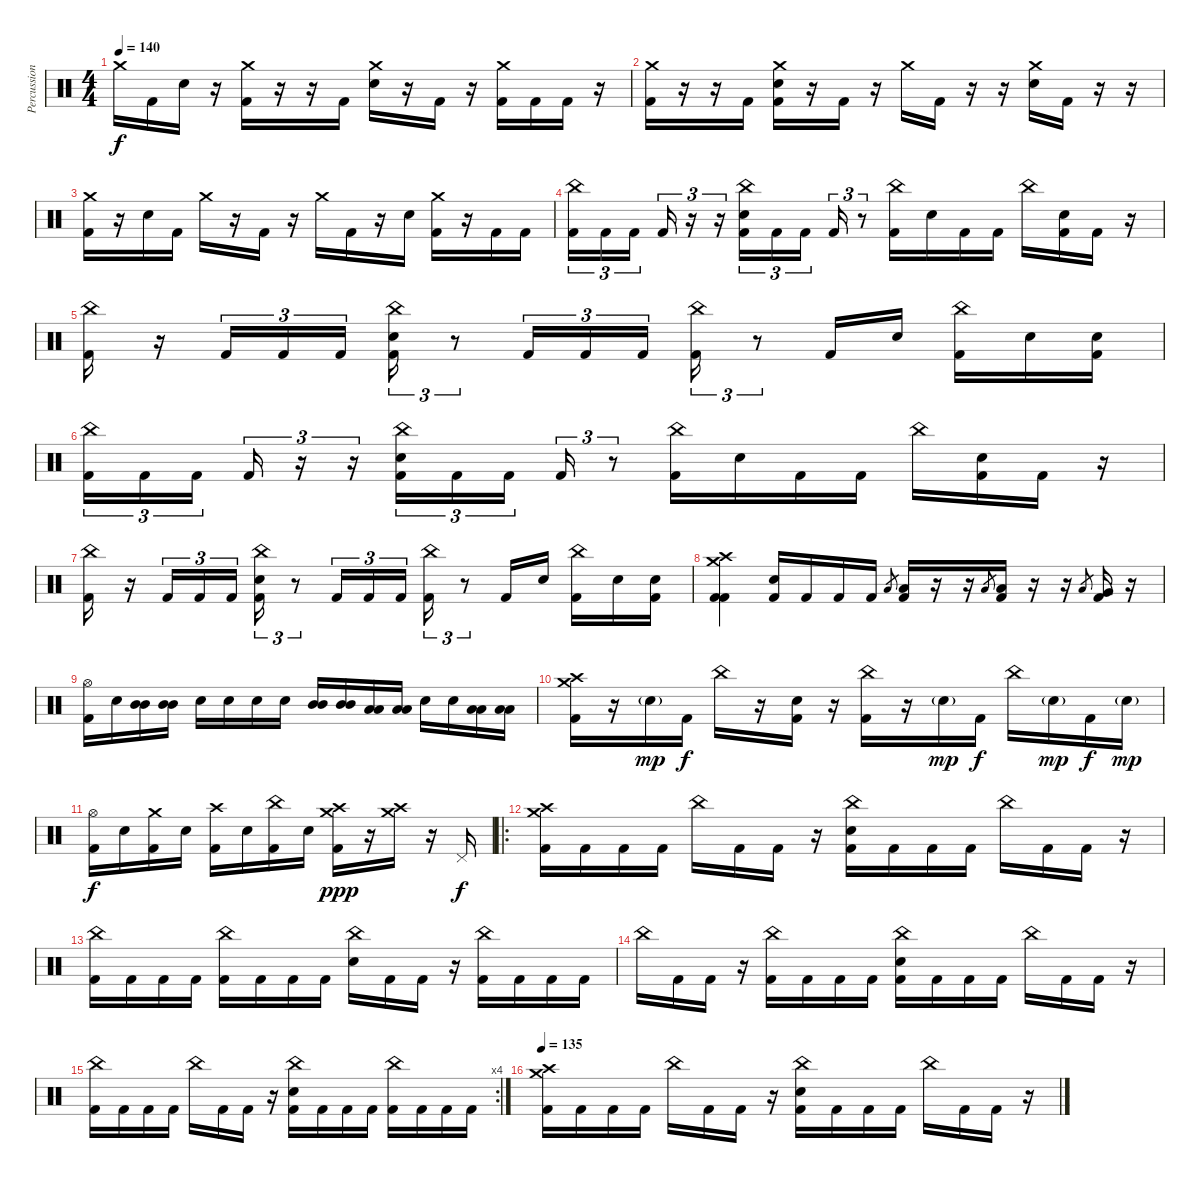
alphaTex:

\track ("Percussion" "Percussion") {instrument percussion}
\staff {score}
\articulation defaults
\ts (4 4)
\tempo 140
\clef neutral
\ks c "Crash medium (hit)".16{dy f} "Kick (hit) 2".16 "Electric Snare (hit)".16
r.16 ("Crash medium (hit)" "Kick (hit) 2").16 r.16 r.16 "Kick (hit) 2".16 ("Crash medium (hit)" "Electric Snare (hit)").16 r.16 "Kick (hit) 2".16 r.16 ("Crash medium (hit)" "Kick (hit) 2").16 "Kick (hit) 2".16 "Kick (hit) 2".16 r.16 |
("Crash medium (hit)" "Kick (hit) 2").16 r.16 r.16 "Kick (hit) 2".16 ("Crash medium (hit)" "Electric Snare (hit)" "Kick (hit) 2").16 r.16 "Kick (hit) 2".16 r.16 "Crash medium (hit)".16 "Kick (hit) 2".16 r.16 r.16 ("Crash medium (hit)" "Electric Snare (hit)").16 "Kick (hit) 2".16 r.16 r.16 |
("Crash medium (hit)" "Kick (hit) 2").16 r.16 "Electric Snare (hit)".16 "Kick (hit) 2".16 "Crash medium (hit)".16 r.16 "Kick (hit) 2".16 r.16 "Crash medium (hit)".16 "Kick (hit) 2".16 r.16 "Electric Snare (hit)".16 ("Crash medium (hit)" "Kick (hit) 2").16 r.16 "Kick (hit) 2".16 "Kick (hit) 2".16 |
("China (hit)" "Kick (hit) 2").16{tu (3 2)} "Kick (hit) 2".16{tu (3 2)} "Kick (hit) 2".16{tu (3 2)} "Kick (hit) 2".16{tu (3 2)} r.16{tu (3 2)} r.16{tu (3 2)} ("China (hit)" "Electric Snare (hit)" "Kick (hit) 2").16{tu (3 2)} "Kick (hit) 2".16{tu (3 2)} "Kick (hit) 2".16{tu (3 2)} "Kick (hit) 2".16{tu (3 2)} r.8{tu (3 2)} ("China (hit)" "Kick (hit) 2").16 "Electric Snare (hit)".16 "Kick (hit) 2".16 "Kick (hit) 2".16 "China (hit)".16 ("Electric Snare (hit)" "Kick (hit) 2").16 "Kick (hit) 2".16 r.16 |
("China (hit)" "Kick (hit) 2").16 r.16 "Kick (hit) 2".16{tu (3 2)} "Kick (hit) 2".16{tu (3 2)} "Kick (hit) 2".16{tu (3 2)} ("China (hit)" "Electric Snare (hit)" "Kick (hit) 2").16{tu (3 2)} r.8{tu (3 2)} "Kick (hit) 2".16{tu (3 2)} "Kick (hit) 2".16{tu (3 2)} "Kick (hit) 2".16{tu (3 2)} ("China (hit)" "Kick (hit) 2").16{tu (3 2)} r.8{tu (3 2)} "Kick (hit) 2".16 "Electric Snare (hit)".16 ("China (hit)" "Kick (hit) 2").16 "Electric Snare (hit)".16 ("Electric Snare (hit)" "Kick (hit) 2").16 |
("China (hit)" "Kick (hit) 2").16{tu (3 2)} "Kick (hit) 2".16{tu (3 2)} "Kick (hit) 2".16{tu (3 2)} "Kick (hit) 2".16{tu (3 2)} r.16{tu (3 2)} r.16{tu (3 2)} ("China (hit)" "Electric Snare (hit)" "Kick (hit) 2").16{tu (3 2)} "Kick (hit) 2".16{tu (3 2)} "Kick (hit) 2".16{tu (3 2)} "Kick (hit) 2".16{tu (3 2)} r.8{tu (3 2)} ("China (hit)" "Kick (hit) 2").16 "Electric Snare (hit)".16 "Kick (hit) 2".16 "Kick (hit) 2".16 "China (hit)".16 ("Electric Snare (hit)" "Kick (hit) 2").16 "Kick (hit) 2".16 r.16 |
("China (hit)" "Kick (hit) 2").16 r.16 "Kick (hit) 2".16{tu (3 2)} "Kick (hit) 2".16{tu (3 2)} "Kick (hit) 2".16{tu (3 2)} ("China (hit)" "Electric Snare (hit)" "Kick (hit) 2").16{tu (3 2)} r.8{tu (3 2)} "Kick (hit) 2".16{tu (3 2)} "Kick (hit) 2".16{tu (3 2)} "Kick (hit) 2".16{tu (3 2)} ("China (hit)" "Kick (hit) 2").16{tu (3 2)} r.8{tu (3 2)} "Kick (hit) 2".16 "Electric Snare (hit)".16 ("China (hit)" "Kick (hit) 2").16 "Electric Snare (hit)".16 ("Electric Snare (hit)" "Kick (hit) 2").16 |
("Kick (hit) 2" "Kick (hit) 2" "Crash medium (hit)" "Crash high (hit)").4 ("Kick (hit) 2" "Electric Snare (hit)").16 "Kick (hit) 2".16 "Kick (hit) 2".16 "Kick (hit) 2".16 "Low Tom (hit)".8{gr} ("Kick (hit) 2" "Low Tom (hit)").16 r.16 r.16 "Low Tom (hit)".8{gr} ("Kick (hit) 2" "Low Tom (hit)").16 r.16 r.16 "Low Tom (hit)".8{gr} ("Kick (hit) 2" "Very Low Tom (hit)").16 r.16 |
("Kick (hit) 2" "Hi-Hat (open)").16 "Electric Snare (hit)".16 ("Mid Tom (hit)" "Mid Tom (hit)").16 ("Mid Tom (hit)" "Mid Tom (hit)").16 "Electric Snare (hit)".16 "Electric Snare (hit)".16 "Electric Snare (hit)".16 "Electric Snare (hit)".16 ("Mid Tom (hit)" "Mid Tom (hit)").16 ("Mid Tom (hit)" "Mid Tom (hit)").16 ("Low Tom (hit)" "Low Tom (hit)").16 ("Low Tom (hit)" "Low Tom (hit)").16 "Electric Snare (hit)".16 "Electric Snare (hit)".16 ("Low Tom (hit)" "Low Tom (hit)").16 ("Low Tom (hit)" "Low Tom (hit)").16 |
("Kick (hit) 2" "Crash medium (hit)" "Crash high (hit)").16 r.16 "Electric Snare (hit)"{g}.16{dy mp} "Kick (hit) 2".16{dy f} "China (hit)".16 r.16 ("Kick (hit) 2" "Electric Snare (hit)").16 r.16 ("Kick (hit) 2" "China (hit)").16 r.16 "Electric Snare (hit)"{g}.16{dy mp} "Kick (hit) 2".16{dy f} "China (hit)".16 "Electric Snare (hit)"{g}.16{dy mp} "Kick (hit) 2".16{dy f} "Electric Snare (hit)"{g}.16{dy mp} |
("Kick (hit) 2" "Hi-Hat (open)").16{dy f} "Electric Snare (hit)".16 ("Kick (hit) 2" "Crash medium (hit)").16 "Electric Snare (hit)".16 ("Kick (hit) 2" "Crash high (hit)").16 "Electric Snare (hit)".16 ("Kick (hit) 2" "China (hit)").16 "Electric Snare (hit)".16 ("Crash medium (hit)" "Crash high (hit)" "Kick (hit) 2").16{dy ppp} r.16 ("Crash high (hit)" "Crash medium (hit)").16 r.16 "Pedal Hi-Hat (hit)".16{dy f} |
\ro
("Crash medium (hit)" "Crash high (hit)" "Kick (hit) 2").16 "Kick (hit) 2".16 "Kick (hit) 2".16 "Kick (hit) 2".16 "China (hit)".16 "Kick (hit) 2".16 "Kick (hit) 2".16 r.16 ("China (hit)" "Electric Snare (hit)" "Kick (hit) 2").16 "Kick (hit) 2".16 "Kick (hit) 2".16 "Kick (hit) 2".16 "China (hit)".16 "Kick (hit) 2".16 "Kick (hit) 2".16 r.16 |
("China (hit)" "Kick (hit) 2").16 "Kick (hit) 2".16 "Kick (hit) 2".16 "Kick (hit) 2".16 ("China (hit)" "Kick (hit) 2").16 "Kick (hit) 2".16 "Kick (hit) 2".16 "Kick (hit) 2".16 ("China (hit)" "Electric Snare (hit)").16 "Kick (hit) 2".16 "Kick (hit) 2".16 r.16 ("China (hit)" "Kick (hit) 2").16 "Kick (hit) 2".16 "Kick (hit) 2".16 "Kick (hit) 2".16 |
"China (hit)".16 "Kick (hit) 2".16 "Kick (hit) 2".16 r.16 ("China (hit)" "Kick (hit) 2").16 "Kick (hit) 2".16 "Kick (hit) 2".16 "Kick (hit) 2".16 ("China (hit)" "Electric Snare (hit)" "Kick (hit) 2").16 "Kick (hit) 2".16 "Kick (hit) 2".16 "Kick (hit) 2".16 "China (hit)".16 "Kick (hit) 2".16 "Kick (hit) 2".16 r.16 |
\rc 4
("China (hit)" "Kick (hit) 2").16 "Kick (hit) 2".16 "Kick (hit) 2".16 "Kick (hit) 2".16 "China (hit)".16 "Kick (hit) 2".16 "Kick (hit) 2".16 r.16 ("China (hit)" "Electric Snare (hit)" "Kick (hit) 2").16 "Kick (hit) 2".16 "Kick (hit) 2".16 "Kick (hit) 2".16 ("China (hit)" "Kick (hit) 2").16 "Kick (hit) 2".16 "Kick (hit) 2".16 "Kick (hit) 2".16 |
\tempo 140
\tempo 135
("Crash medium (hit)" "Crash high (hit)" "Kick (hit) 2").16 "Kick (hit) 2".16 "Kick (hit) 2".16 "Kick (hit) 2".16 "China (hit)".16 "Kick (hit) 2".16 "Kick (hit) 2".16 r.16 ("China (hit)" "Electric Snare (hit)" "Kick (hit) 2").16 "Kick (hit) 2".16 "Kick (hit) 2".16 "Kick (hit) 2".16 "China (hit)".16 "Kick (hit) 2".16 "Kick (hit) 2".16 r.16
